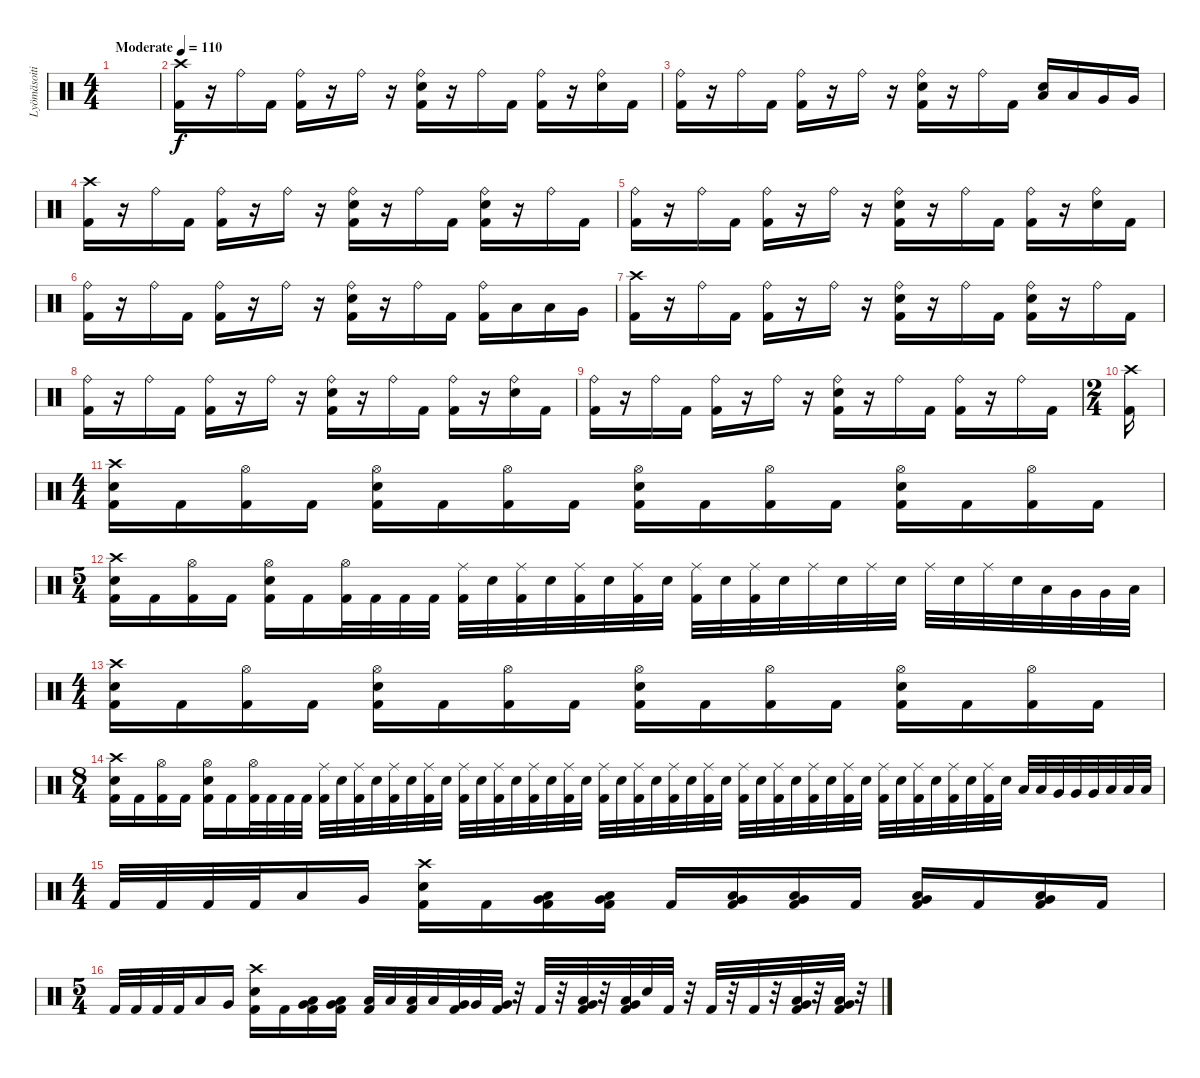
\track ("Lyömäsoitin" "Lyömäsoiti") {instrument percussion}
\staff {score}
\articulation defaults
\ts (4 4)
\tempo (110 "Moderate")
\clef neutral
\ks c
|
("Crash high (hit)" "Kick (hit) 2").16 r.16 "Ride (bell)".16 "Kick (hit) 2".16 ("Ride (bell)" "Kick (hit) 2").16 r.16 "Ride (bell)".16 r.16 ("Ride (bell)" "Electric Snare (hit)" "Kick (hit) 2").16 r.16 "Ride (bell)".16 "Kick (hit) 2".16 ("Ride (bell)" "Kick (hit) 2").16 r.16 ("Ride (bell)" "Electric Snare (hit)").16 "Kick (hit) 2".16 |
("Ride (bell)" "Kick (hit) 2").16 r.16 "Ride (bell)".16 "Kick (hit) 2".16 ("Ride (bell)" "Kick (hit) 2").16 r.16 "Ride (bell)".16 r.16 ("Ride (bell)" "Electric Snare (hit)" "Kick (hit) 2").16 r.16 "Ride (bell)".16 "Kick (hit) 2".16 ("Low Tom (hit)" "Electric Snare (hit)").16 "Low Tom (hit)".16 "Very Low Tom (hit)".16 "Very Low Tom (hit)".16 |
("Crash high (hit)" "Kick (hit) 2").16 r.16 "Ride (bell)".16 "Kick (hit) 2".16 ("Ride (bell)" "Kick (hit) 2").16 r.16 "Ride (bell)".16 r.16 ("Ride (bell)" "Electric Snare (hit)" "Kick (hit) 2").16 r.16 "Ride (bell)".16 "Kick (hit) 2".16 ("Ride (bell)" "Electric Snare (hit)" "Kick (hit) 2").16 r.16 "Ride (bell)".16 "Kick (hit) 2".16 |
("Ride (bell)" "Kick (hit) 2").16 r.16 "Ride (bell)".16 "Kick (hit) 2".16 ("Ride (bell)" "Kick (hit) 2").16 r.16 "Ride (bell)".16 r.16 ("Ride (bell)" "Electric Snare (hit)" "Kick (hit) 2").16 r.16 "Ride (bell)".16 "Kick (hit) 2".16 ("Ride (bell)" "Kick (hit) 2").16 r.16 ("Ride (bell)" "Electric Snare (hit)").16 "Kick (hit) 2".16 |
("Ride (bell)" "Kick (hit) 2").16 r.16 "Ride (bell)".16 "Kick (hit) 2".16 ("Ride (bell)" "Kick (hit) 2").16 r.16 "Ride (bell)".16 r.16 ("Ride (bell)" "Electric Snare (hit)" "Kick (hit) 2").16 r.16 "Ride (bell)".16 "Kick (hit) 2".16 ("Ride (bell)" "Kick (hit) 2").16 "Low Tom (hit)".16 "Low Tom (hit)".16 "Very Low Tom (hit)".16 |
("Crash high (hit)" "Kick (hit) 2").16 r.16 "Ride (bell)".16 "Kick (hit) 2".16 ("Ride (bell)" "Kick (hit) 2").16 r.16 "Ride (bell)".16 r.16 ("Ride (bell)" "Electric Snare (hit)" "Kick (hit) 2").16 r.16 "Ride (bell)".16 "Kick (hit) 2".16 ("Ride (bell)" "Electric Snare (hit)" "Kick (hit) 2").16 r.16 "Ride (bell)".16 "Kick (hit) 2".16 |
("Ride (bell)" "Kick (hit) 2").16 r.16 "Ride (bell)".16 "Kick (hit) 2".16 ("Ride (bell)" "Kick (hit) 2").16 r.16 "Ride (bell)".16 r.16 ("Ride (bell)" "Electric Snare (hit)" "Kick (hit) 2").16 r.16 "Ride (bell)".16 "Kick (hit) 2".16 ("Ride (bell)" "Kick (hit) 2").16 r.16 ("Ride (bell)" "Electric Snare (hit)").16 "Kick (hit) 2".16 |
("Ride (bell)" "Kick (hit) 2").16 r.16 "Ride (bell)".16 "Kick (hit) 2".16 ("Ride (bell)" "Kick (hit) 2").16 r.16 "Ride (bell)".16 r.16 ("Ride (bell)" "Electric Snare (hit)" "Kick (hit) 2").16 r.16 "Ride (bell)".16 "Kick (hit) 2".16 ("Ride (bell)" "Kick (hit) 2").16 r.16 "Ride (bell)".16 "Kick (hit) 2".16 |
\ts (2 4)
("Crash high (hit)" "Kick (hit) 2").16 |
\ts (4 4)
("Crash high (hit)" "Electric Snare (hit)" "Kick (hit) 2").16 "Kick (hit) 2".16 ("Hi-Hat (open)" "Kick (hit) 2").16 "Kick (hit) 2".16 ("Hi-Hat (open)" "Electric Snare (hit)" "Kick (hit) 2").16 "Kick (hit) 2".16 ("Hi-Hat (open)" "Kick (hit) 2").16 "Kick (hit) 2".16 ("Hi-Hat (open)" "Electric Snare (hit)" "Kick (hit) 2").16 "Kick (hit) 2".16 ("Hi-Hat (open)" "Kick (hit) 2").16 "Kick (hit) 2".16 ("Hi-Hat (open)" "Electric Snare (hit)" "Kick (hit) 2").16 "Kick (hit) 2".16 ("Hi-Hat (open)" "Kick (hit) 2").16 "Kick (hit) 2".16 |
\ts (5 4)
("Crash high (hit)" "Electric Snare (hit)" "Kick (hit) 2").16 "Kick (hit) 2".16 ("Hi-Hat (open)" "Kick (hit) 2").16 "Kick (hit) 2".16 ("Hi-Hat (open)" "Electric Snare (hit)" "Kick (hit) 2").16 "Kick (hit) 2".16 ("Hi-Hat (open)" "Kick (hit) 2").32 "Kick (hit) 2".32 "Kick (hit) 2".32 "Kick (hit) 2".32 ("Ride (middle)" "Kick (hit) 2").32 "Electric Snare (hit)".32 ("Ride (middle)" "Kick (hit) 2").32 "Electric Snare (hit)".32 ("Ride (middle)" "Kick (hit) 2").32 "Electric Snare (hit)".32 ("Ride (middle)" "Kick (hit) 2").32 "Electric Snare (hit)".32 ("Ride (middle)" "Kick (hit) 2").32 "Electric Snare (hit)".32 ("Ride (middle)" "Kick (hit) 2").32 "Electric Snare (hit)".32 "Ride (middle)".32 "Electric Snare (hit)".32 "Ride (middle)".32 "Electric Snare (hit)".32 "Ride (middle)".32 "Electric Snare (hit)".32 "Ride (middle)".32 "Electric Snare (hit)".32 "Low Tom (hit)".32 "Very Low Tom (hit)".32 "Very Low Tom (hit)".32 "Low Floor Tom (hit)".32 |
\ts (4 4)
("Crash high (hit)" "Electric Snare (hit)" "Kick (hit) 2").16 "Kick (hit) 2".16 ("Hi-Hat (open)" "Kick (hit) 2").16 "Kick (hit) 2".16 ("Hi-Hat (open)" "Electric Snare (hit)" "Kick (hit) 2").16 "Kick (hit) 2".16 ("Hi-Hat (open)" "Kick (hit) 2").16 "Kick (hit) 2".16 ("Hi-Hat (open)" "Electric Snare (hit)" "Kick (hit) 2").16 "Kick (hit) 2".16 ("Hi-Hat (open)" "Kick (hit) 2").16 "Kick (hit) 2".16 ("Hi-Hat (open)" "Electric Snare (hit)" "Kick (hit) 2").16 "Kick (hit) 2".16 ("Hi-Hat (open)" "Kick (hit) 2").16 "Kick (hit) 2".16 |
\ts (8 4)
("Crash high (hit)" "Electric Snare (hit)" "Kick (hit) 2").16 "Kick (hit) 2".16 ("Hi-Hat (open)" "Kick (hit) 2").16 "Kick (hit) 2".16 ("Hi-Hat (open)" "Electric Snare (hit)" "Kick (hit) 2").16 "Kick (hit) 2".16 ("Hi-Hat (open)" "Kick (hit) 2").32 "Kick (hit) 2".32 "Kick (hit) 2".32 "Kick (hit) 2".32 ("Ride (middle)" "Kick (hit) 2").32 "Electric Snare (hit)".32 ("Ride (middle)" "Kick (hit) 2").32 "Electric Snare (hit)".32 ("Ride (middle)" "Kick (hit) 2").32 "Electric Snare (hit)".32 ("Ride (middle)" "Kick (hit) 2").32 "Electric Snare (hit)".32 ("Ride (middle)" "Kick (hit) 2").32 "Electric Snare (hit)".32 ("Ride (middle)" "Kick (hit) 2").32 "Electric Snare (hit)".32 ("Ride (middle)" "Kick (hit) 2").32 "Electric Snare (hit)".32 ("Ride (middle)" "Kick (hit) 2").32 "Electric Snare (hit)".32 ("Ride (middle)" "Kick (hit) 2").32 "Electric Snare (hit)".32 ("Ride (middle)" "Kick (hit) 2").32 "Electric Snare (hit)".32 ("Ride (middle)" "Kick (hit) 2").32 "Electric Snare (hit)".32 ("Ride (middle)" "Kick (hit) 2").32 "Electric Snare (hit)".32 ("Ride (middle)" "Kick (hit) 2").32 "Electric Snare (hit)".32 ("Ride (middle)" "Kick (hit) 2").32 "Electric Snare (hit)".32 ("Ride (middle)" "Kick (hit) 2").32 "Electric Snare (hit)".32 ("Ride (middle)" "Kick (hit) 2").32 "Electric Snare (hit)".32 ("Ride (middle)" "Kick (hit) 2").32 "Electric Snare (hit)".32 ("Ride (middle)" "Kick (hit) 2").32 "Electric Snare (hit)".32 ("Ride (middle)" "Kick (hit) 2").32 "Electric Snare (hit)".32 ("Ride (middle)" "Kick (hit) 2").32 "Electric Snare (hit)".32 "Low Tom (hit)".32 "Low Tom (hit)".32 "Very Low Tom (hit)".32 "Very Low Tom (hit)".32 "Very Low Tom (hit)".32 "Low Floor Tom (hit)".32 "Low Floor Tom (hit)".32 "Low Floor Tom (hit)".32 |
\ts (4 4)
"Kick (hit) 2".32 "Kick (hit) 2".32 "Kick (hit) 2".32 "Kick (hit) 2".32 "Low Tom (hit)".16 "Very Low Tom (hit)".16 ("Crash high (hit)" "Electric Snare (hit)" "Kick (hit) 2").16 "Kick (hit) 2".16 ("Low Tom (hit)" "Very Low Tom (hit)" "Kick (hit) 2").16 ("Low Tom (hit)" "Very Low Tom (hit)" "Kick (hit) 2").16 "Kick (hit) 2".16 ("Very Low Tom (hit)" "Low Tom (hit)" "Kick (hit) 2").16 ("Low Tom (hit)" "Very Low Tom (hit)" "Kick (hit) 2").16 "Kick (hit) 2".16 ("Low Tom (hit)" "Very Low Tom (hit)" "Kick (hit) 2").16 "Kick (hit) 2".16 ("Low Tom (hit)" "Very Low Tom (hit)" "Kick (hit) 2").16 "Kick (hit) 2".16 |
\ts (5 4)
"Kick (hit) 2".32 "Kick (hit) 2".32 "Kick (hit) 2".32 "Kick (hit) 2".32 "Low Tom (hit)".16 "Very Low Tom (hit)".16 ("Crash high (hit)" "Electric Snare (hit)" "Kick (hit) 2").16 "Kick (hit) 2".16 ("Low Tom (hit)" "Very Low Tom (hit)" "Kick (hit) 2").16 ("Low Tom (hit)" "Very Low Tom (hit)" "Kick (hit) 2").16 ("Low Tom (hit)" "Kick (hit) 2").32 "Low Tom (hit)".32 ("Low Tom (hit)" "Kick (hit) 2").32 "Low Tom (hit)".32 ("Very Low Tom (hit)" "Kick (hit) 2").32 "Very Low Tom (hit)".32 ("Very Low Tom (hit)" "Kick (hit) 2").32 r.32 "Kick (hit) 2".32 r.32 ("Low Tom (hit)" "Very Low Tom (hit)" "Kick (hit) 2").32 r.32 ("Very Low Tom (hit)" "Low Tom (hit)" "Kick (hit) 2").32 "Snare (hit)".32 "Kick (hit) 2".32 r.32 "Kick (hit) 2".32 r.32 "Kick (hit) 2".32 r.32 ("Low Tom (hit)" "Very Low Tom (hit)" "Kick (hit) 2").32 r.32 ("Very Low Tom (hit)" "Low Tom (hit)" "Kick (hit) 2").32 r.32
